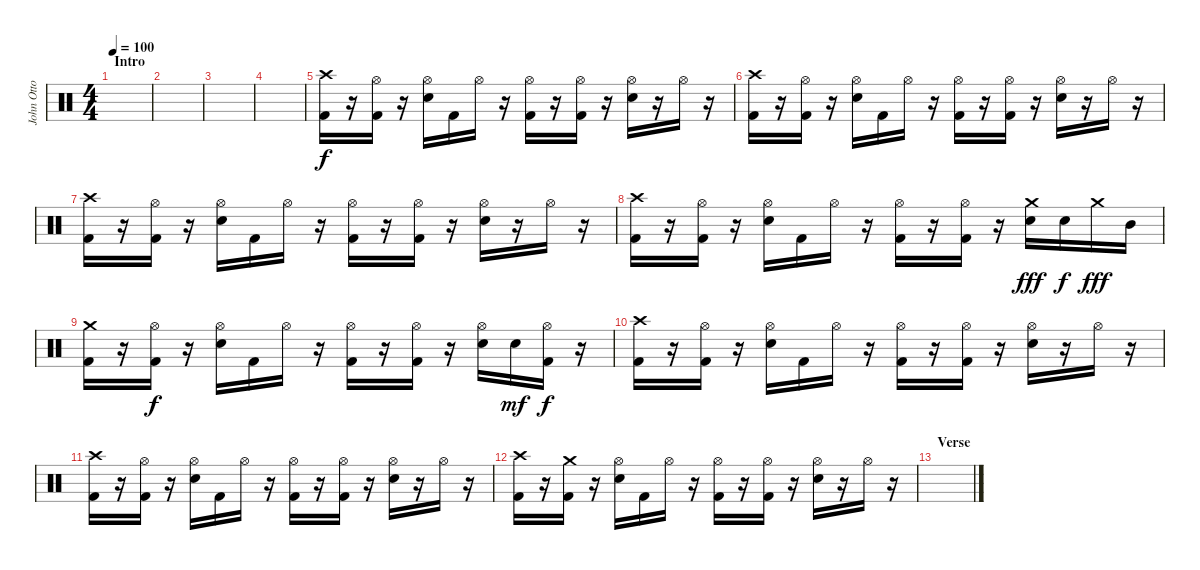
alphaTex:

\track ("John Otto - Drums" "John Otto ") {instrument percussion}
\staff {score}
\articulation defaults
\ts (4 4)
\section ("" "Intro")
\tempo 100
\clef neutral
\ks c
|
|
|
|
("Crash high (hit)" "Kick (hit) 2").16 r.16 ("Hi-Hat (open)" "Kick (hit) 2").16 r.16 ("Hi-Hat (open)" "Electric Snare (hit)").16 "Kick (hit) 2".16 "Hi-Hat (open)".16 r.16 ("Hi-Hat (open)" "Kick (hit) 2").16 r.16 ("Hi-Hat (open)" "Kick (hit) 2").16 r.16 ("Hi-Hat (open)" "Electric Snare (hit)").16 r.16 "Hi-Hat (open)".16 r.16 |
("Crash high (hit)" "Kick (hit) 2").16 r.16 ("Hi-Hat (open)" "Kick (hit) 2").16 r.16 ("Hi-Hat (open)" "Electric Snare (hit)").16 "Kick (hit) 2".16 "Hi-Hat (open)".16 r.16 ("Hi-Hat (open)" "Kick (hit) 2").16 r.16 ("Hi-Hat (open)" "Kick (hit) 2").16 r.16 ("Hi-Hat (open)" "Electric Snare (hit)").16 r.16 "Hi-Hat (open)".16 r.16 |
("Crash high (hit)" "Kick (hit) 2").16 r.16 ("Hi-Hat (open)" "Kick (hit) 2").16 r.16 ("Hi-Hat (open)" "Electric Snare (hit)").16 "Kick (hit) 2".16 "Hi-Hat (open)".16 r.16 ("Hi-Hat (open)" "Kick (hit) 2").16 r.16 ("Hi-Hat (open)" "Kick (hit) 2").16 r.16 ("Hi-Hat (open)" "Electric Snare (hit)").16 r.16 "Hi-Hat (open)".16 r.16 |
("Crash high (hit)" "Kick (hit) 2").16 r.16 ("Hi-Hat (open)" "Kick (hit) 2").16 r.16 ("Hi-Hat (open)" "Electric Snare (hit)").16 "Kick (hit) 2".16 "Hi-Hat (open)".16 r.16 ("Hi-Hat (open)" "Kick (hit) 2").16 r.16 ("Hi-Hat (open)" "Kick (hit) 2").16 r.16 ("Crash medium (hit)" "Electric Snare (hit)").16{dy fff} "Electric Snare (hit)".16{dy f} "Crash medium (hit)".16{dy fff} "Mid Tom (hit)".16 |
("Crash medium (hit)" "Kick (hit) 2").16 r.16 ("Hi-Hat (open)" "Kick (hit) 2").16{dy f} r.16 ("Hi-Hat (open)" "Electric Snare (hit)").16 "Kick (hit) 2".16 "Hi-Hat (open)".16 r.16 ("Hi-Hat (open)" "Kick (hit) 2").16 r.16 ("Hi-Hat (open)" "Kick (hit) 2").16 r.16 ("Hi-Hat (open)" "Electric Snare (hit)").16 "Electric Snare (hit)".16{dy mf} ("Hi-Hat (open)" "Kick (hit) 2").16{dy f} r.16 |
("Crash high (hit)" "Kick (hit) 2").16 r.16 ("Hi-Hat (open)" "Kick (hit) 2").16 r.16 ("Hi-Hat (open)" "Electric Snare (hit)").16 "Kick (hit) 2".16 "Hi-Hat (open)".16 r.16 ("Hi-Hat (open)" "Kick (hit) 2").16 r.16 ("Hi-Hat (open)" "Kick (hit) 2").16 r.16 ("Hi-Hat (open)" "Electric Snare (hit)").16 r.16 "Hi-Hat (open)".16 r.16 |
("Crash high (hit)" "Kick (hit) 2").16 r.16 ("Hi-Hat (open)" "Kick (hit) 2").16 r.16 ("Hi-Hat (open)" "Electric Snare (hit)").16 "Kick (hit) 2".16 "Hi-Hat (open)".16 r.16 ("Hi-Hat (open)" "Kick (hit) 2").16 r.16 ("Hi-Hat (open)" "Kick (hit) 2").16 r.16 ("Hi-Hat (open)" "Electric Snare (hit)").16 r.16 "Hi-Hat (open)".16 r.16 |
("Crash high (hit)" "Kick (hit) 2").16 r.16 ("Crash medium (hit)" "Kick (hit) 2").16 r.16 ("Hi-Hat (open)" "Electric Snare (hit)").16 "Kick (hit) 2".16 "Hi-Hat (open)".16 r.16 ("Hi-Hat (open)" "Kick (hit) 2").16 r.16 ("Hi-Hat (open)" "Kick (hit) 2").16 r.16 ("Hi-Hat (open)" "Electric Snare (hit)").16 r.16 "Hi-Hat (open)".16 r.16 |
\section ("" "Verse")
